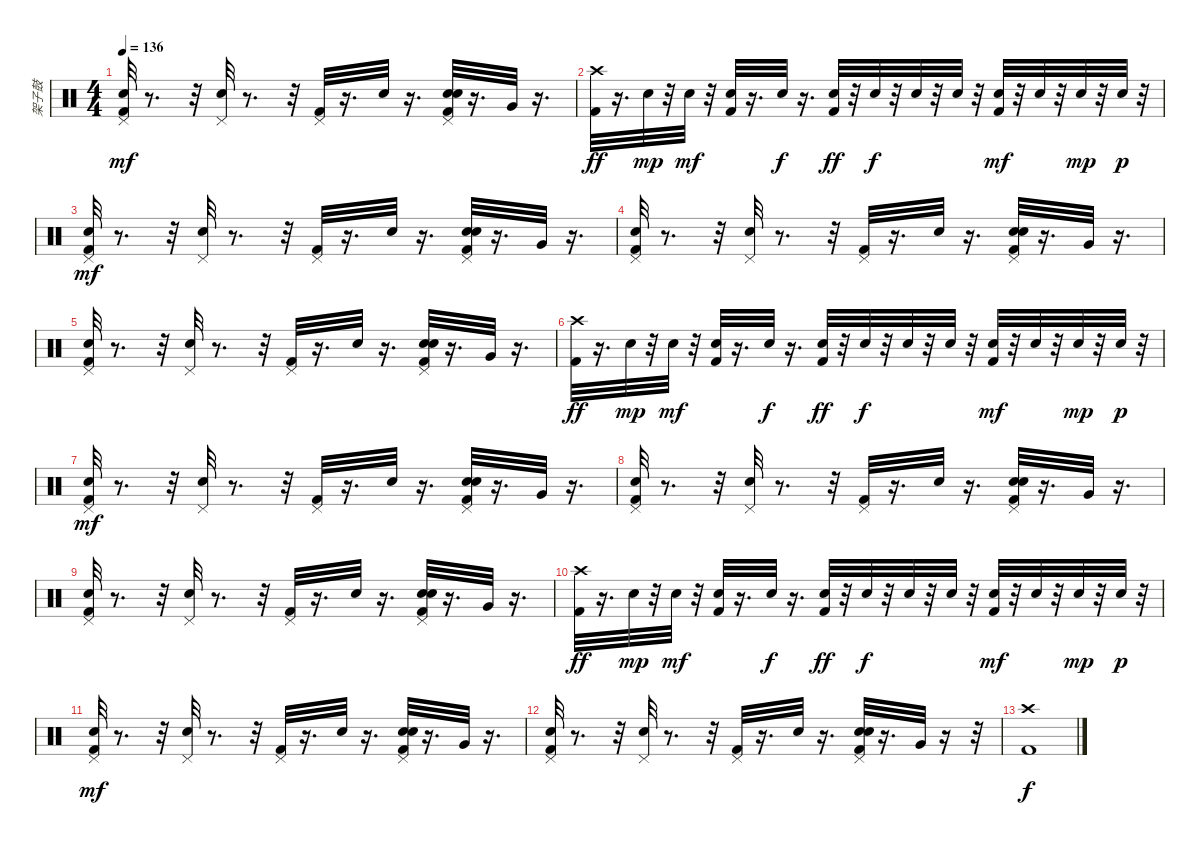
\track ("架子鼓" "架子鼓") {instrument percussion}
\staff {score}
\articulation defaults
\ts (4 4)
\tempo 136
\clef neutral
\ks c
("Pedal Hi-Hat (hit)" "Kick (hit) 2" "Metronome (bell)").32{dy mf} r.8{d} r.32 ("Pedal Hi-Hat (hit)" "Metronome (bell)").32 r.8{d} r.32 ("Pedal Hi-Hat (hit)" "Kick (hit) 2").32 r.16{d} "Metronome (bell)".32 r.16{d} ("Pedal Hi-Hat (hit)" "Electric Snare (hit)" "Kick (hit) 2" "Metronome (bell)").32 r.16{d} "Very Low Tom (hit)".32 r.16{d} |
("Crash high (hit)" "Kick (hit) 2").32{dy ff} r.16{d} "Metronome (bell)".32{dy mp} r.32 "Metronome (bell)".32{dy mf} r.32 ("Metronome (bell)" "Kick (hit) 2").32 r.16{d} "Metronome (bell)".32{dy f} r.16{d} ("Kick (hit) 2" "Metronome (bell)").32{dy ff} r.32 "Metronome (bell)".32{dy f} r.32 "Metronome (bell)".32 r.32 "Metronome (bell)".32 r.32 ("Kick (hit) 2" "Metronome (bell)").32{dy mf} r.32 "Metronome (bell)".32 r.32 "Metronome (bell)".32{dy mp} r.32 "Metronome (bell)".32{dy p} r.32 |
("Pedal Hi-Hat (hit)" "Kick (hit) 2" "Metronome (bell)").32{dy mf} r.8{d} r.32 ("Pedal Hi-Hat (hit)" "Metronome (bell)").32 r.8{d} r.32 ("Pedal Hi-Hat (hit)" "Kick (hit) 2").32 r.16{d} "Metronome (bell)".32 r.16{d} ("Pedal Hi-Hat (hit)" "Electric Snare (hit)" "Kick (hit) 2" "Metronome (bell)").32 r.16{d} "Very Low Tom (hit)".32 r.16{d} |
("Pedal Hi-Hat (hit)" "Kick (hit) 2" "Metronome (bell)").32 r.8{d} r.32 ("Pedal Hi-Hat (hit)" "Metronome (bell)").32 r.8{d} r.32 ("Pedal Hi-Hat (hit)" "Kick (hit) 2").32 r.16{d} "Metronome (bell)".32 r.16{d} ("Pedal Hi-Hat (hit)" "Electric Snare (hit)" "Kick (hit) 2" "Metronome (bell)").32 r.16{d} "Very Low Tom (hit)".32 r.16{d} |
("Pedal Hi-Hat (hit)" "Kick (hit) 2" "Metronome (bell)").32 r.8{d} r.32 ("Pedal Hi-Hat (hit)" "Metronome (bell)").32 r.8{d} r.32 ("Pedal Hi-Hat (hit)" "Kick (hit) 2").32 r.16{d} "Metronome (bell)".32 r.16{d} ("Pedal Hi-Hat (hit)" "Electric Snare (hit)" "Kick (hit) 2" "Metronome (bell)").32 r.16{d} "Very Low Tom (hit)".32 r.16{d} |
("Crash high (hit)" "Kick (hit) 2").32{dy ff} r.16{d} "Metronome (bell)".32{dy mp} r.32 "Metronome (bell)".32{dy mf} r.32 ("Metronome (bell)" "Kick (hit) 2").32 r.16{d} "Metronome (bell)".32{dy f} r.16{d} ("Kick (hit) 2" "Metronome (bell)").32{dy ff} r.32 "Metronome (bell)".32{dy f} r.32 "Metronome (bell)".32 r.32 "Metronome (bell)".32 r.32 ("Kick (hit) 2" "Metronome (bell)").32{dy mf} r.32 "Metronome (bell)".32 r.32 "Metronome (bell)".32{dy mp} r.32 "Metronome (bell)".32{dy p} r.32 |
("Pedal Hi-Hat (hit)" "Kick (hit) 2" "Metronome (bell)").32{dy mf} r.8{d} r.32 ("Pedal Hi-Hat (hit)" "Metronome (bell)").32 r.8{d} r.32 ("Pedal Hi-Hat (hit)" "Kick (hit) 2").32 r.16{d} "Metronome (bell)".32 r.16{d} ("Pedal Hi-Hat (hit)" "Electric Snare (hit)" "Kick (hit) 2" "Metronome (bell)").32 r.16{d} "Very Low Tom (hit)".32 r.16{d} |
("Pedal Hi-Hat (hit)" "Kick (hit) 2" "Metronome (bell)").32 r.8{d} r.32 ("Pedal Hi-Hat (hit)" "Metronome (bell)").32 r.8{d} r.32 ("Pedal Hi-Hat (hit)" "Kick (hit) 2").32 r.16{d} "Metronome (bell)".32 r.16{d} ("Pedal Hi-Hat (hit)" "Electric Snare (hit)" "Kick (hit) 2" "Metronome (bell)").32 r.16{d} "Very Low Tom (hit)".32 r.16{d} |
("Pedal Hi-Hat (hit)" "Kick (hit) 2" "Metronome (bell)").32 r.8{d} r.32 ("Pedal Hi-Hat (hit)" "Metronome (bell)").32 r.8{d} r.32 ("Pedal Hi-Hat (hit)" "Kick (hit) 2").32 r.16{d} "Metronome (bell)".32 r.16{d} ("Pedal Hi-Hat (hit)" "Electric Snare (hit)" "Kick (hit) 2" "Metronome (bell)").32 r.16{d} "Very Low Tom (hit)".32 r.16{d} |
("Crash high (hit)" "Kick (hit) 2").32{dy ff} r.16{d} "Metronome (bell)".32{dy mp} r.32 "Metronome (bell)".32{dy mf} r.32 ("Metronome (bell)" "Kick (hit) 2").32 r.16{d} "Metronome (bell)".32{dy f} r.16{d} ("Kick (hit) 2" "Metronome (bell)").32{dy ff} r.32 "Metronome (bell)".32{dy f} r.32 "Metronome (bell)".32 r.32 "Metronome (bell)".32 r.32 ("Kick (hit) 2" "Metronome (bell)").32{dy mf} r.32 "Metronome (bell)".32 r.32 "Metronome (bell)".32{dy mp} r.32 "Metronome (bell)".32{dy p} r.32 |
("Pedal Hi-Hat (hit)" "Kick (hit) 2" "Metronome (bell)").32{dy mf} r.8{d} r.32 ("Pedal Hi-Hat (hit)" "Metronome (bell)").32 r.8{d} r.32 ("Pedal Hi-Hat (hit)" "Kick (hit) 2").32 r.16{d} "Metronome (bell)".32 r.16{d} ("Pedal Hi-Hat (hit)" "Electric Snare (hit)" "Kick (hit) 2" "Metronome (bell)").32 r.16{d} "Very Low Tom (hit)".32 r.16{d} |
("Pedal Hi-Hat (hit)" "Kick (hit) 2" "Metronome (bell)").32 r.8{d} r.32 ("Pedal Hi-Hat (hit)" "Metronome (bell)").32 r.8{d} r.32 ("Pedal Hi-Hat (hit)" "Kick (hit) 2").32 r.16{d} "Metronome (bell)".32 r.16{d} ("Pedal Hi-Hat (hit)" "Electric Snare (hit)" "Kick (hit) 2" "Metronome (bell)").32 r.16{d} "Very Low Tom (hit)".32 r.16 r.32 |
("Crash high (hit)" "Kick (hit) 2").1{dy f}
